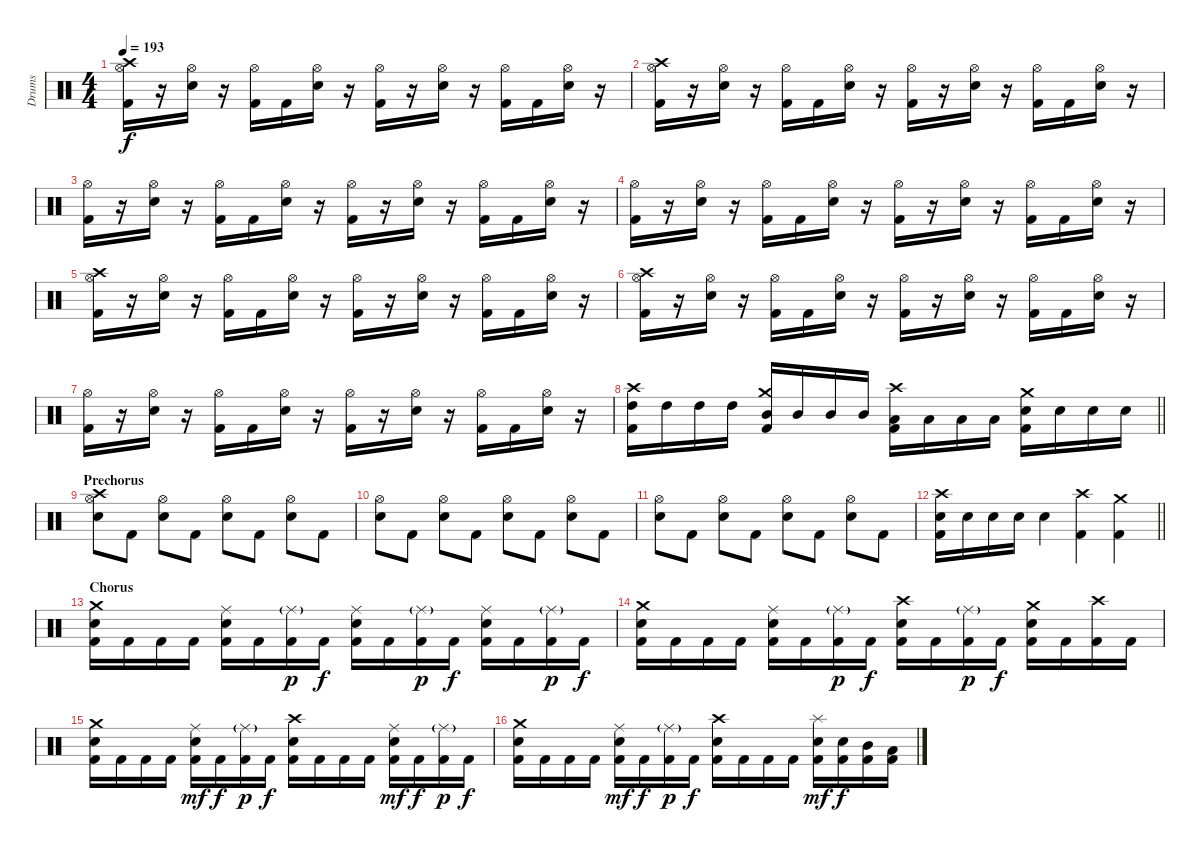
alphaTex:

\track ("Drums" "Drums") {instrument percussion}
\staff {score}
\articulation defaults
\ts (4 4)
\tempo 193
\clef neutral
\ks c
("Crash high (hit)" "Hi-Hat (open)" "Kick (hit) 2").16{dy f} r.16 ("Hi-Hat (open)" "Snare (hit) 2").16 r.16 ("Hi-Hat (open)" "Kick (hit) 2").16 "Kick (hit) 2".16 ("Hi-Hat (open)" "Snare (hit) 2").16 r.16 ("Hi-Hat (open)" "Kick (hit) 2").16 r.16 ("Hi-Hat (open)" "Snare (hit) 2").16 r.16 ("Hi-Hat (open)" "Kick (hit) 2").16 "Kick (hit) 2".16 ("Hi-Hat (open)" "Snare (hit) 2").16 r.16 |
("Crash high (hit)" "Hi-Hat (open)" "Kick (hit) 2").16 r.16 ("Hi-Hat (open)" "Snare (hit) 2").16 r.16 ("Hi-Hat (open)" "Kick (hit) 2").16 "Kick (hit) 2".16 ("Hi-Hat (open)" "Snare (hit) 2").16 r.16 ("Hi-Hat (open)" "Kick (hit) 2").16 r.16 ("Hi-Hat (open)" "Snare (hit) 2").16 r.16 ("Hi-Hat (open)" "Kick (hit) 2").16 "Kick (hit) 2".16 ("Hi-Hat (open)" "Snare (hit) 2").16 r.16 |
("Hi-Hat (open)" "Kick (hit) 2").16 r.16 ("Hi-Hat (open)" "Snare (hit) 2").16 r.16 ("Hi-Hat (open)" "Kick (hit) 2").16 "Kick (hit) 2".16 ("Hi-Hat (open)" "Snare (hit) 2").16 r.16 ("Hi-Hat (open)" "Kick (hit) 2").16 r.16 ("Hi-Hat (open)" "Snare (hit) 2").16 r.16 ("Hi-Hat (open)" "Kick (hit) 2").16 "Kick (hit) 2".16 ("Hi-Hat (open)" "Snare (hit) 2").16 r.16 |
("Hi-Hat (open)" "Kick (hit) 2").16 r.16 ("Hi-Hat (open)" "Snare (hit) 2").16 r.16 ("Hi-Hat (open)" "Kick (hit) 2").16 "Kick (hit) 2".16 ("Hi-Hat (open)" "Snare (hit) 2").16 r.16 ("Hi-Hat (open)" "Kick (hit) 2").16 r.16 ("Hi-Hat (open)" "Snare (hit) 2").16 r.16 ("Hi-Hat (open)" "Kick (hit) 2").16 "Kick (hit) 2".16 ("Hi-Hat (open)" "Snare (hit) 2").16 r.16 |
("Crash high (hit)" "Hi-Hat (open)" "Kick (hit) 2").16 r.16 ("Hi-Hat (open)" "Snare (hit) 2").16 r.16 ("Hi-Hat (open)" "Kick (hit) 2").16 "Kick (hit) 2".16 ("Hi-Hat (open)" "Snare (hit) 2").16 r.16 ("Hi-Hat (open)" "Kick (hit) 2").16 r.16 ("Hi-Hat (open)" "Snare (hit) 2").16 r.16 ("Hi-Hat (open)" "Kick (hit) 2").16 "Kick (hit) 2".16 ("Hi-Hat (open)" "Snare (hit) 2").16 r.16 |
("Crash high (hit)" "Hi-Hat (open)" "Kick (hit) 2").16 r.16 ("Hi-Hat (open)" "Snare (hit) 2").16 r.16 ("Hi-Hat (open)" "Kick (hit) 2").16 "Kick (hit) 2".16 ("Hi-Hat (open)" "Snare (hit) 2").16 r.16 ("Hi-Hat (open)" "Kick (hit) 2").16 r.16 ("Hi-Hat (open)" "Snare (hit) 2").16 r.16 ("Hi-Hat (open)" "Kick (hit) 2").16 "Kick (hit) 2".16 ("Hi-Hat (open)" "Snare (hit) 2").16 r.16 |
("Hi-Hat (open)" "Kick (hit) 2").16 r.16 ("Hi-Hat (open)" "Snare (hit) 2").16 r.16 ("Hi-Hat (open)" "Kick (hit) 2").16 "Kick (hit) 2".16 ("Hi-Hat (open)" "Snare (hit) 2").16 r.16 ("Hi-Hat (open)" "Kick (hit) 2").16 r.16 ("Hi-Hat (open)" "Snare (hit) 2").16 r.16 ("Hi-Hat (open)" "Kick (hit) 2").16 "Kick (hit) 2".16 ("Hi-Hat (open)" "Snare (hit) 2").16 r.16 |
\barLineRight lightlight
("Crash high (hit)" "High Tom (hit)" "Kick (hit) 2").16 "High Tom (hit)".16 "High Tom (hit)".16 "High Tom (hit)".16 ("Crash medium (hit)" "Mid Tom (hit)" "Kick (hit) 2").16 "Mid Tom (hit)".16 "Mid Tom (hit)".16 "Mid Tom (hit)".16 ("Crash high (hit)" "Low Tom (hit)" "Kick (hit) 2").16 "Low Tom (hit)".16 "Low Tom (hit)".16 "Low Tom (hit)".16 ("Crash medium (hit)" "Snare (hit) 2" "Kick (hit) 2").16 "Snare (hit) 2".16 "Snare (hit) 2".16 "Snare (hit) 2".16 |
\section ("" "Prechorus")
("Crash high (hit)" "Hi-Hat (open)" "Snare (hit) 2").8 "Kick (hit) 2".8 ("Hi-Hat (open)" "Snare (hit) 2").8 "Kick (hit) 2".8 ("Hi-Hat (open)" "Snare (hit) 2").8 "Kick (hit) 2".8 ("Hi-Hat (open)" "Snare (hit) 2").8 "Kick (hit) 2".8 |
("Hi-Hat (open)" "Snare (hit) 2").8 "Kick (hit) 2".8 ("Hi-Hat (open)" "Snare (hit) 2").8 "Kick (hit) 2".8 ("Hi-Hat (open)" "Snare (hit) 2").8 "Kick (hit) 2".8 ("Hi-Hat (open)" "Snare (hit) 2").8 "Kick (hit) 2".8 |
("Hi-Hat (open)" "Snare (hit) 2").8 "Kick (hit) 2".8 ("Hi-Hat (open)" "Snare (hit) 2").8 "Kick (hit) 2".8 ("Hi-Hat (open)" "Snare (hit) 2").8 "Kick (hit) 2".8 ("Hi-Hat (open)" "Snare (hit) 2").8 "Kick (hit) 2".8 |
\barLineRight lightlight
("Crash high (hit)" "Snare (hit) 2" "Kick (hit) 2").16 "Snare (hit) 2".16 "Snare (hit) 2".16 "Snare (hit) 2".16 "Snare (hit) 2".4 ("Crash high (hit)" "Kick (hit) 2").4 ("Crash medium (hit)" "Kick (hit) 2").4 |
\section ("" "Chorus")
("Crash medium (hit)" "Snare (hit) 2" "Kick (hit) 2").16 "Kick (hit) 2".16 "Kick (hit) 2".16 "Kick (hit) 2".16 ("Ride (middle)" "Snare (hit) 2" "Kick (hit) 2").16 "Kick (hit) 2".16 ("Ride (middle)"{g} "Kick (hit) 2").16{dy p} "Kick (hit) 2".16{dy f} ("Ride (middle)" "Snare (hit) 2" "Kick (hit) 2").16 "Kick (hit) 2".16 ("Ride (middle)"{g} "Kick (hit) 2").16{dy p} "Kick (hit) 2".16{dy f} ("Ride (middle)" "Snare (hit) 2" "Kick (hit) 2").16 "Kick (hit) 2".16 ("Ride (middle)"{g} "Kick (hit) 2").16{dy p} "Kick (hit) 2".16{dy f} |
("Crash medium (hit)" "Snare (hit) 2" "Kick (hit) 2").16 "Kick (hit) 2".16 "Kick (hit) 2".16 "Kick (hit) 2".16 ("Ride (middle)" "Snare (hit) 2" "Kick (hit) 2").16 "Kick (hit) 2".16 ("Ride (middle)"{g} "Kick (hit) 2").16{dy p} "Kick (hit) 2".16{dy f} ("Crash high (hit)" "Snare (hit) 2" "Kick (hit) 2").16 "Kick (hit) 2".16 ("Ride (middle)"{g} "Kick (hit) 2").16{dy p} "Kick (hit) 2".16{dy f} ("Crash medium (hit)" "Snare (hit) 2" "Kick (hit) 2").16 "Kick (hit) 2".16 ("Crash high (hit)" "Kick (hit) 2").16 "Kick (hit) 2".16 |
("Crash medium (hit)" "Snare (hit) 2" "Kick (hit) 2").16 "Kick (hit) 2".16 "Kick (hit) 2".16 "Kick (hit) 2".16 ("Ride (middle)" "Snare (hit) 2" "Kick (hit) 2").16{dy mf} "Kick (hit) 2".16{dy f} ("Ride (middle)"{g} "Kick (hit) 2").16{dy p} "Kick (hit) 2".16{dy f} ("Crash high (hit)" "Snare (hit) 2" "Kick (hit) 2").16 "Kick (hit) 2".16 "Kick (hit) 2".16 "Kick (hit) 2".16 ("Ride (middle)" "Snare (hit) 2" "Kick (hit) 2").16{dy mf} "Kick (hit) 2".16{dy f} ("Ride (middle)"{g} "Kick (hit) 2").16{dy p} "Kick (hit) 2".16{dy f} |
("Crash medium (hit)" "Snare (hit) 2" "Kick (hit) 2").16 "Kick (hit) 2".16 "Kick (hit) 2".16 "Kick (hit) 2".16 ("Ride (middle)" "Snare (hit) 2" "Kick (hit) 2").16{dy mf} "Kick (hit) 2".16{dy f} ("Ride (middle)"{g} "Kick (hit) 2").16{dy p} "Kick (hit) 2".16{dy f} ("Crash high (hit)" "Snare (hit) 2" "Kick (hit) 2").16 "Kick (hit) 2".16 "Kick (hit) 2".16 "Kick (hit) 2".16 ("Splash (hit)" "Snare (hit) 2" "Kick (hit) 2").16{dy mf} ("Snare (hit) 2" "Kick (hit) 2").16{dy f} ("Mid Tom (hit)" "Kick (hit) 2").16 ("Low Tom (hit)" "Kick (hit) 2").16
